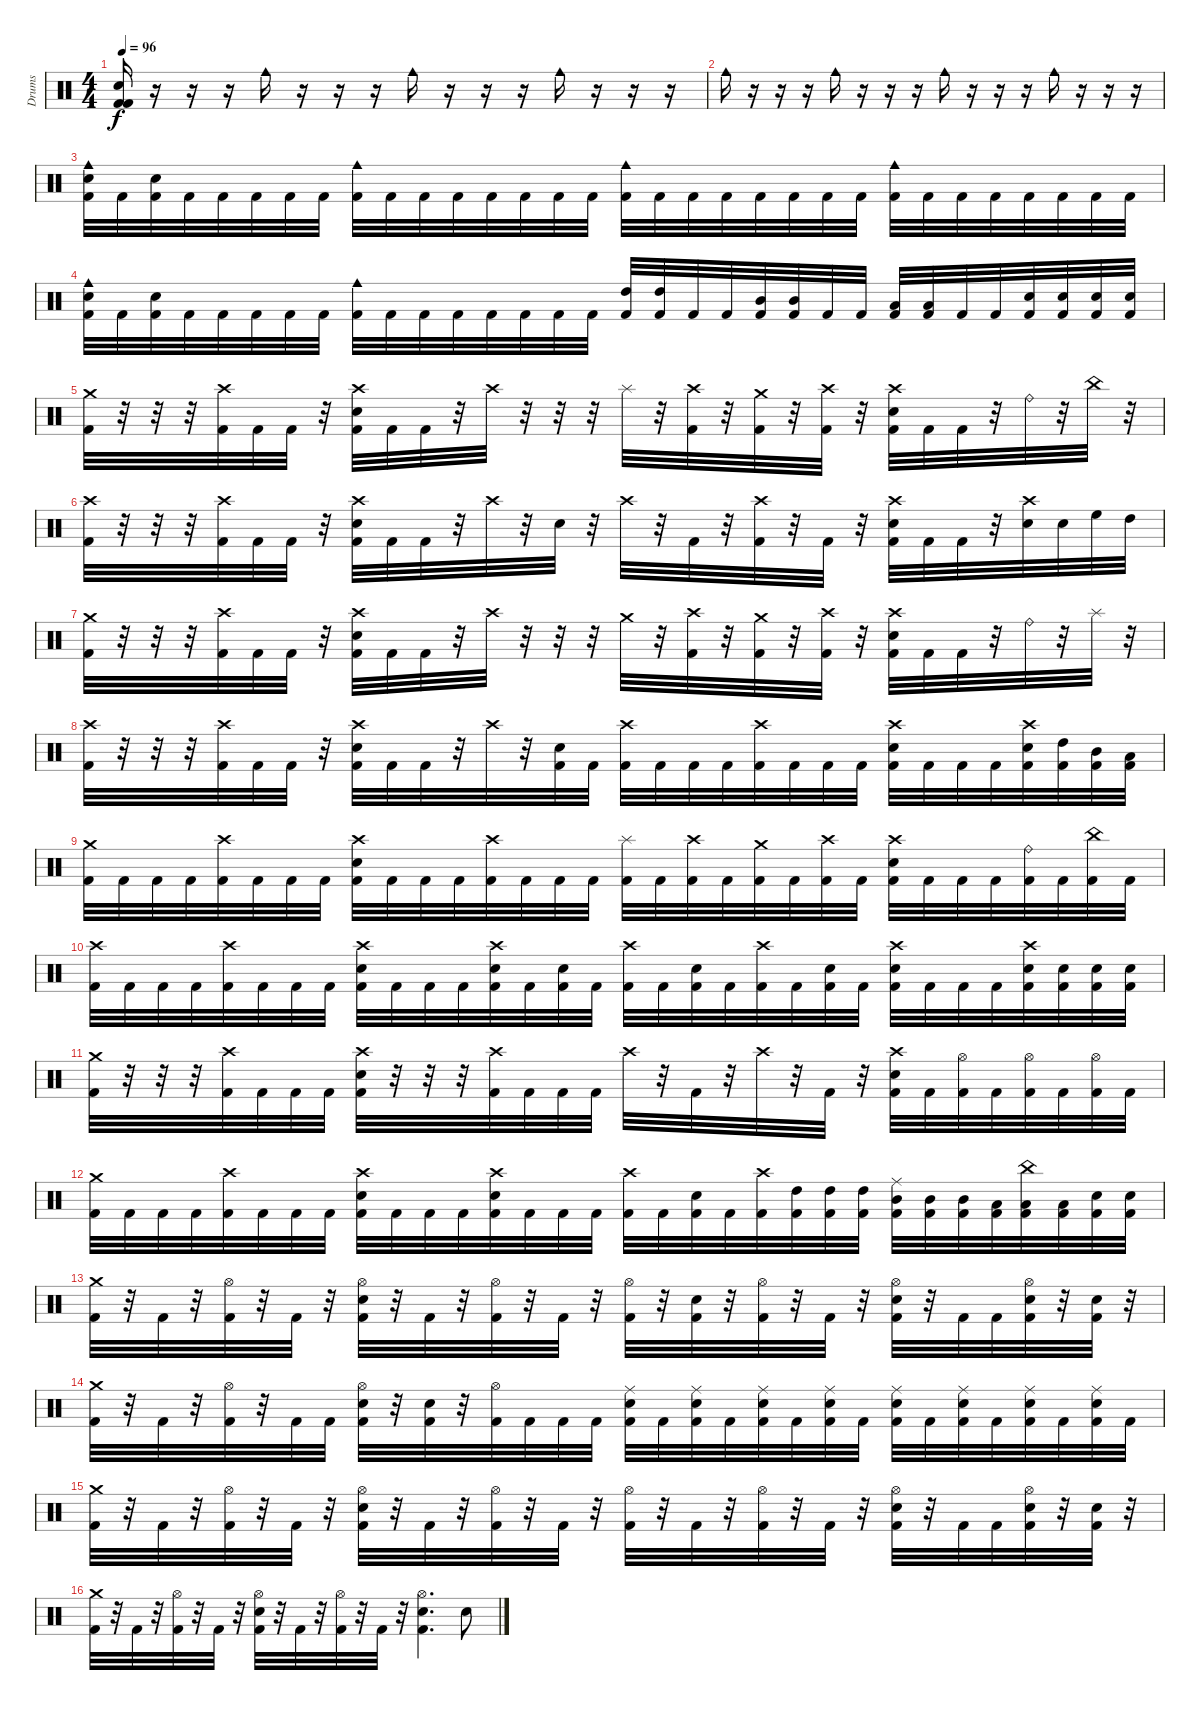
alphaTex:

\track ("Drums" "Drums") {instrument percussion}
\staff {score}
\articulation defaults
\ts (4 4)
\tempo 96
\clef neutral
\ks c
("Electric Snare (hit)" "Kick (hit) 2" "Kick (hit) 2").16{dy f} r.16 r.16 r.16 "Cowbell medium (hit)".16 r.16 r.16 r.16 "Cowbell medium (hit)".16 r.16 r.16 r.16 "Cowbell medium (hit)".16 r.16 r.16 r.16 |
"Cowbell medium (hit)".16 r.16 r.16 r.16 "Cowbell medium (hit)".16 r.16 r.16 r.16 "Cowbell medium (hit)".16 r.16 r.16 r.16 "Cowbell medium (hit)".16 r.16 r.16 r.16 |
("Cowbell medium (hit)" "Electric Snare (hit)" "Kick (hit) 2").32 "Kick (hit) 2".32 ("Electric Snare (hit)" "Kick (hit) 2").32 "Kick (hit) 2".32 "Kick (hit) 2".32 "Kick (hit) 2".32 "Kick (hit) 2".32 "Kick (hit) 2".32 ("Cowbell medium (hit)" "Kick (hit) 2").32 "Kick (hit) 2".32 "Kick (hit) 2".32 "Kick (hit) 2".32 "Kick (hit) 2".32 "Kick (hit) 2".32 "Kick (hit) 2".32 "Kick (hit) 2".32 ("Cowbell medium (hit)" "Kick (hit) 2").32 "Kick (hit) 2".32 "Kick (hit) 2".32 "Kick (hit) 2".32 "Kick (hit) 2".32 "Kick (hit) 2".32 "Kick (hit) 2".32 "Kick (hit) 2".32 ("Cowbell medium (hit)" "Kick (hit) 2").32 "Kick (hit) 2".32 "Kick (hit) 2".32 "Kick (hit) 2".32 "Kick (hit) 2".32 "Kick (hit) 2".32 "Kick (hit) 2".32 "Kick (hit) 2".32 |
("Cowbell medium (hit)" "Electric Snare (hit)" "Kick (hit) 2").32 "Kick (hit) 2".32 ("Electric Snare (hit)" "Kick (hit) 2").32 "Kick (hit) 2".32 "Kick (hit) 2".32 "Kick (hit) 2".32 "Kick (hit) 2".32 "Kick (hit) 2".32 ("Cowbell medium (hit)" "Kick (hit) 2").32 "Kick (hit) 2".32 "Kick (hit) 2".32 "Kick (hit) 2".32 "Kick (hit) 2".32 "Kick (hit) 2".32 "Kick (hit) 2".32 "Kick (hit) 2".32 ("High Tom (hit)" "Kick (hit) 2").32 ("High Tom (hit)" "Kick (hit) 2").32 "Kick (hit) 2".32 "Kick (hit) 2".32 ("Mid Tom (hit)" "Kick (hit) 2").32 ("Mid Tom (hit)" "Kick (hit) 2").32 "Kick (hit) 2".32 "Kick (hit) 2".32 ("Low Tom (hit)" "Kick (hit) 2").32 ("Low Tom (hit)" "Kick (hit) 2").32 "Kick (hit) 2".32 "Kick (hit) 2".32 ("Electric Snare (hit)" "Kick (hit) 2").32 ("Electric Snare (hit)" "Kick (hit) 2").32 ("Electric Snare (hit)" "Kick (hit) 2").32 ("Electric Snare (hit)" "Kick (hit) 2").32 |
("Crash medium (hit)" "Kick (hit) 2").32 r.32 r.32 r.32 ("Crash high (hit)" "Kick (hit) 2").32 "Kick (hit) 2".32 "Kick (hit) 2".32 r.32 ("Crash high (hit)" "Electric Snare (hit)" "Kick (hit) 2").32 "Kick (hit) 2".32 "Kick (hit) 2".32 r.32 "Crash high (hit)".32 r.32 r.32 r.32 "Splash (hit)".32 r.32 ("Crash high (hit)" "Kick (hit) 2").32 r.32 ("Crash medium (hit)" "Kick (hit) 2").32 r.32 ("Crash high (hit)" "Kick (hit) 2").32 r.32 ("Crash high (hit)" "Electric Snare (hit)" "Kick (hit) 2").32 "Kick (hit) 2".32 "Kick (hit) 2".32 r.32 "Ride (bell)".32 r.32 "China (hit)".32 r.32 |
("Crash high (hit)" "Kick (hit) 2").32 r.32 r.32 r.32 ("Crash high (hit)" "Kick (hit) 2").32 "Kick (hit) 2".32 "Kick (hit) 2".32 r.32 ("Crash high (hit)" "Electric Snare (hit)" "Kick (hit) 2").32 "Kick (hit) 2".32 "Kick (hit) 2".32 r.32 "Crash high (hit)".32 r.32 "Electric Snare (hit)".32 r.32 "Crash high (hit)".32 r.32 "Kick (hit) 2".32 r.32 ("Crash high (hit)" "Kick (hit) 2").32 r.32 "Kick (hit) 2".32 r.32 ("Crash high (hit)" "Electric Snare (hit)" "Kick (hit) 2").32 "Kick (hit) 2".32 "Kick (hit) 2".32 r.32 ("Crash high (hit)" "Electric Snare (hit)").32 "Electric Snare (hit)".32 "High Floor Tom (hit)".32 "High Tom (hit)".32 |
("Crash medium (hit)" "Kick (hit) 2").32 r.32 r.32 r.32 ("Crash high (hit)" "Kick (hit) 2").32 "Kick (hit) 2".32 "Kick (hit) 2".32 r.32 ("Crash high (hit)" "Electric Snare (hit)" "Kick (hit) 2").32 "Kick (hit) 2".32 "Kick (hit) 2".32 r.32 "Crash high (hit)".32 r.32 r.32 r.32 "Crash medium (hit)".32 r.32 ("Crash high (hit)" "Kick (hit) 2").32 r.32 ("Crash medium (hit)" "Kick (hit) 2").32 r.32 ("Crash high (hit)" "Kick (hit) 2").32 r.32 ("Crash high (hit)" "Electric Snare (hit)" "Kick (hit) 2").32 "Kick (hit) 2".32 "Kick (hit) 2".32 r.32 "Ride (bell)".32 r.32 "Splash (hit)".32 r.32 |
("Crash high (hit)" "Kick (hit) 2").32 r.32 r.32 r.32 ("Crash high (hit)" "Kick (hit) 2").32 "Kick (hit) 2".32 "Kick (hit) 2".32 r.32 ("Crash high (hit)" "Electric Snare (hit)" "Kick (hit) 2").32 "Kick (hit) 2".32 "Kick (hit) 2".32 r.32 "Crash high (hit)".32 r.32 ("Electric Snare (hit)" "Kick (hit) 2").32 "Kick (hit) 2".32 ("Crash high (hit)" "Kick (hit) 2").32 "Kick (hit) 2".32 "Kick (hit) 2".32 "Kick (hit) 2".32 ("Crash high (hit)" "Kick (hit) 2").32 "Kick (hit) 2".32 "Kick (hit) 2".32 "Kick (hit) 2".32 ("Crash high (hit)" "Electric Snare (hit)" "Kick (hit) 2").32 "Kick (hit) 2".32 "Kick (hit) 2".32 "Kick (hit) 2".32 ("Crash high (hit)" "Electric Snare (hit)" "Kick (hit) 2").32 ("High Tom (hit)" "Kick (hit) 2").32 ("Mid Tom (hit)" "Kick (hit) 2").32 ("Low Tom (hit)" "Kick (hit) 2").32 |
("Crash medium (hit)" "Kick (hit) 2").32 "Kick (hit) 2".32 "Kick (hit) 2".32 "Kick (hit) 2".32 ("Crash high (hit)" "Kick (hit) 2").32 "Kick (hit) 2".32 "Kick (hit) 2".32 "Kick (hit) 2".32 ("Crash high (hit)" "Electric Snare (hit)" "Kick (hit) 2").32 "Kick (hit) 2".32 "Kick (hit) 2".32 "Kick (hit) 2".32 ("Crash high (hit)" "Kick (hit) 2").32 "Kick (hit) 2".32 "Kick (hit) 2".32 "Kick (hit) 2".32 ("Splash (hit)" "Kick (hit) 2").32 "Kick (hit) 2".32 ("Crash high (hit)" "Kick (hit) 2").32 "Kick (hit) 2".32 ("Crash medium (hit)" "Kick (hit) 2").32 "Kick (hit) 2".32 ("Crash high (hit)" "Kick (hit) 2").32 "Kick (hit) 2".32 ("Crash high (hit)" "Electric Snare (hit)" "Kick (hit) 2").32 "Kick (hit) 2".32 "Kick (hit) 2".32 "Kick (hit) 2".32 ("Ride (bell)" "Kick (hit) 2").32 "Kick (hit) 2".32 ("China (hit)" "Kick (hit) 2").32 "Kick (hit) 2".32 |
("Crash high (hit)" "Kick (hit) 2").32 "Kick (hit) 2".32 "Kick (hit) 2".32 "Kick (hit) 2".32 ("Crash high (hit)" "Kick (hit) 2").32 "Kick (hit) 2".32 "Kick (hit) 2".32 "Kick (hit) 2".32 ("Crash high (hit)" "Electric Snare (hit)" "Kick (hit) 2").32 "Kick (hit) 2".32 "Kick (hit) 2".32 "Kick (hit) 2".32 ("Crash high (hit)" "Electric Snare (hit)" "Kick (hit) 2").32 "Kick (hit) 2".32 ("Electric Snare (hit)" "Kick (hit) 2").32 "Kick (hit) 2".32 ("Crash high (hit)" "Kick (hit) 2").32 "Kick (hit) 2".32 ("Electric Snare (hit)" "Kick (hit) 2").32 "Kick (hit) 2".32 ("Crash high (hit)" "Kick (hit) 2").32 "Kick (hit) 2".32 ("Electric Snare (hit)" "Kick (hit) 2").32 "Kick (hit) 2".32 ("Crash high (hit)" "Electric Snare (hit)" "Kick (hit) 2").32 "Kick (hit) 2".32 "Kick (hit) 2".32 "Kick (hit) 2".32 ("Crash high (hit)" "Electric Snare (hit)" "Kick (hit) 2").32 ("Electric Snare (hit)" "Kick (hit) 2").32 ("Electric Snare (hit)" "Kick (hit) 2").32 ("Electric Snare (hit)" "Kick (hit) 2").32 |
("Crash medium (hit)" "Kick (hit) 2").32 r.32 r.32 r.32 ("Crash high (hit)" "Kick (hit) 2").32 "Kick (hit) 2".32 "Kick (hit) 2".32 "Kick (hit) 2".32 ("Crash high (hit)" "Electric Snare (hit)" "Kick (hit) 2").32 r.32 r.32 r.32 ("Crash high (hit)" "Kick (hit) 2").32 "Kick (hit) 2".32 "Kick (hit) 2".32 "Kick (hit) 2".32 "Crash high (hit)".32 r.32 "Kick (hit) 2".32 r.32 "Crash high (hit)".32 r.32 "Kick (hit) 2".32 r.32 ("Crash high (hit)" "Electric Snare (hit)" "Kick (hit) 2").32 "Kick (hit) 2".32 ("Hi-Hat (open)" "Kick (hit) 2").32 "Kick (hit) 2".32 ("Hi-Hat (open)" "Kick (hit) 2").32 "Kick (hit) 2".32 ("Hi-Hat (open)" "Kick (hit) 2").32 "Kick (hit) 2".32 |
("Crash medium (hit)" "Kick (hit) 2").32 "Kick (hit) 2".32 "Kick (hit) 2".32 "Kick (hit) 2".32 ("Crash high (hit)" "Kick (hit) 2").32 "Kick (hit) 2".32 "Kick (hit) 2".32 "Kick (hit) 2".32 ("Crash high (hit)" "Electric Snare (hit)" "Kick (hit) 2").32 "Kick (hit) 2".32 "Kick (hit) 2".32 "Kick (hit) 2".32 ("Crash high (hit)" "Electric Snare (hit)" "Kick (hit) 2").32 "Kick (hit) 2".32 "Kick (hit) 2".32 "Kick (hit) 2".32 ("Crash high (hit)" "Kick (hit) 2").32 "Kick (hit) 2".32 ("Electric Snare (hit)" "Kick (hit) 2").32 "Kick (hit) 2".32 ("Crash high (hit)" "Kick (hit) 2").32 ("High Tom (hit)" "Kick (hit) 2").32 ("High Tom (hit)" "Kick (hit) 2").32 ("High Tom (hit)" "Kick (hit) 2").32 ("Ride (middle)" "Mid Tom (hit)" "Kick (hit) 2").32 ("Mid Tom (hit)" "Kick (hit) 2").32 ("Mid Tom (hit)" "Kick (hit) 2").32 ("Low Tom (hit)" "Kick (hit) 2").32 ("China (hit)" "Low Tom (hit)" "Kick (hit) 2").32 ("Low Tom (hit)" "Kick (hit) 2").32 ("Electric Snare (hit)" "Kick (hit) 2").32 ("Electric Snare (hit)" "Kick (hit) 2").32 |
("Crash medium (hit)" "Kick (hit) 2").32 r.32 "Kick (hit) 2".32 r.32 ("Hi-Hat (open)" "Kick (hit) 2").32 r.32 "Kick (hit) 2".32 r.32 ("Hi-Hat (open)" "Electric Snare (hit)" "Kick (hit) 2").32 r.32 "Kick (hit) 2".32 r.32 ("Hi-Hat (open)" "Kick (hit) 2").32 r.32 "Kick (hit) 2".32 r.32 ("Hi-Hat (open)" "Kick (hit) 2").32 r.32 ("Electric Snare (hit)" "Kick (hit) 2").32 r.32 ("Hi-Hat (open)" "Kick (hit) 2").32 r.32 "Kick (hit) 2".32 r.32 ("Hi-Hat (open)" "Electric Snare (hit)" "Kick (hit) 2").32 r.32 "Kick (hit) 2".32 "Kick (hit) 2".32 ("Hi-Hat (open)" "Electric Snare (hit)" "Kick (hit) 2").32 r.32 ("Electric Snare (hit)" "Kick (hit) 2").32 r.32 |
("Crash medium (hit)" "Kick (hit) 2").32 r.32 "Kick (hit) 2".32 r.32 ("Hi-Hat (open)" "Kick (hit) 2").32 r.32 "Kick (hit) 2".32 "Kick (hit) 2".32 ("Hi-Hat (open)" "Electric Snare (hit)" "Kick (hit) 2").32 r.32 ("Electric Snare (hit)" "Kick (hit) 2").32 r.32 ("Hi-Hat (open)" "Kick (hit) 2").32 "Kick (hit) 2".32 "Kick (hit) 2".32 "Kick (hit) 2".32 ("Ride (middle)" "Electric Snare (hit)" "Kick (hit) 2").32 "Kick (hit) 2".32 ("Ride (middle)" "Electric Snare (hit)" "Kick (hit) 2").32 "Kick (hit) 2".32 ("Ride (middle)" "Electric Snare (hit)" "Kick (hit) 2").32 "Kick (hit) 2".32 ("Ride (middle)" "Electric Snare (hit)" "Kick (hit) 2").32 "Kick (hit) 2".32 ("Ride (middle)" "Electric Snare (hit)" "Kick (hit) 2").32 "Kick (hit) 2".32 ("Ride (middle)" "Electric Snare (hit)" "Kick (hit) 2").32 "Kick (hit) 2".32 ("Ride (middle)" "Electric Snare (hit)" "Kick (hit) 2").32 "Kick (hit) 2".32 ("Ride (middle)" "Electric Snare (hit)" "Kick (hit) 2").32 "Kick (hit) 2".32 |
("Crash medium (hit)" "Kick (hit) 2").32 r.32 "Kick (hit) 2".32 r.32 ("Hi-Hat (open)" "Kick (hit) 2").32 r.32 "Kick (hit) 2".32 r.32 ("Hi-Hat (open)" "Electric Snare (hit)" "Kick (hit) 2").32 r.32 "Kick (hit) 2".32 r.32 ("Hi-Hat (open)" "Kick (hit) 2").32 r.32 "Kick (hit) 2".32 r.32 ("Hi-Hat (open)" "Kick (hit) 2").32 r.32 "Kick (hit) 2".32 r.32 ("Hi-Hat (open)" "Kick (hit) 2").32 r.32 "Kick (hit) 2".32 r.32 ("Hi-Hat (open)" "Electric Snare (hit)" "Kick (hit) 2").32 r.32 "Kick (hit) 2".32 "Kick (hit) 2".32 ("Hi-Hat (open)" "Electric Snare (hit)" "Kick (hit) 2").32 r.32 ("Electric Snare (hit)" "Kick (hit) 2").32 r.32 |
("Crash medium (hit)" "Kick (hit) 2").32 r.32 "Kick (hit) 2".32 r.32 ("Hi-Hat (open)" "Kick (hit) 2").32 r.32 "Kick (hit) 2".32 r.32 ("Hi-Hat (open)" "Electric Snare (hit)" "Kick (hit) 2").32 r.32 "Kick (hit) 2".32 r.32 ("Hi-Hat (open)" "Kick (hit) 2").32 r.32 "Kick (hit) 2".32 r.32 ("Hi-Hat (open)" "Electric Snare (hit)" "Kick (hit) 2").4{d} "Electric Snare (hit)".8
